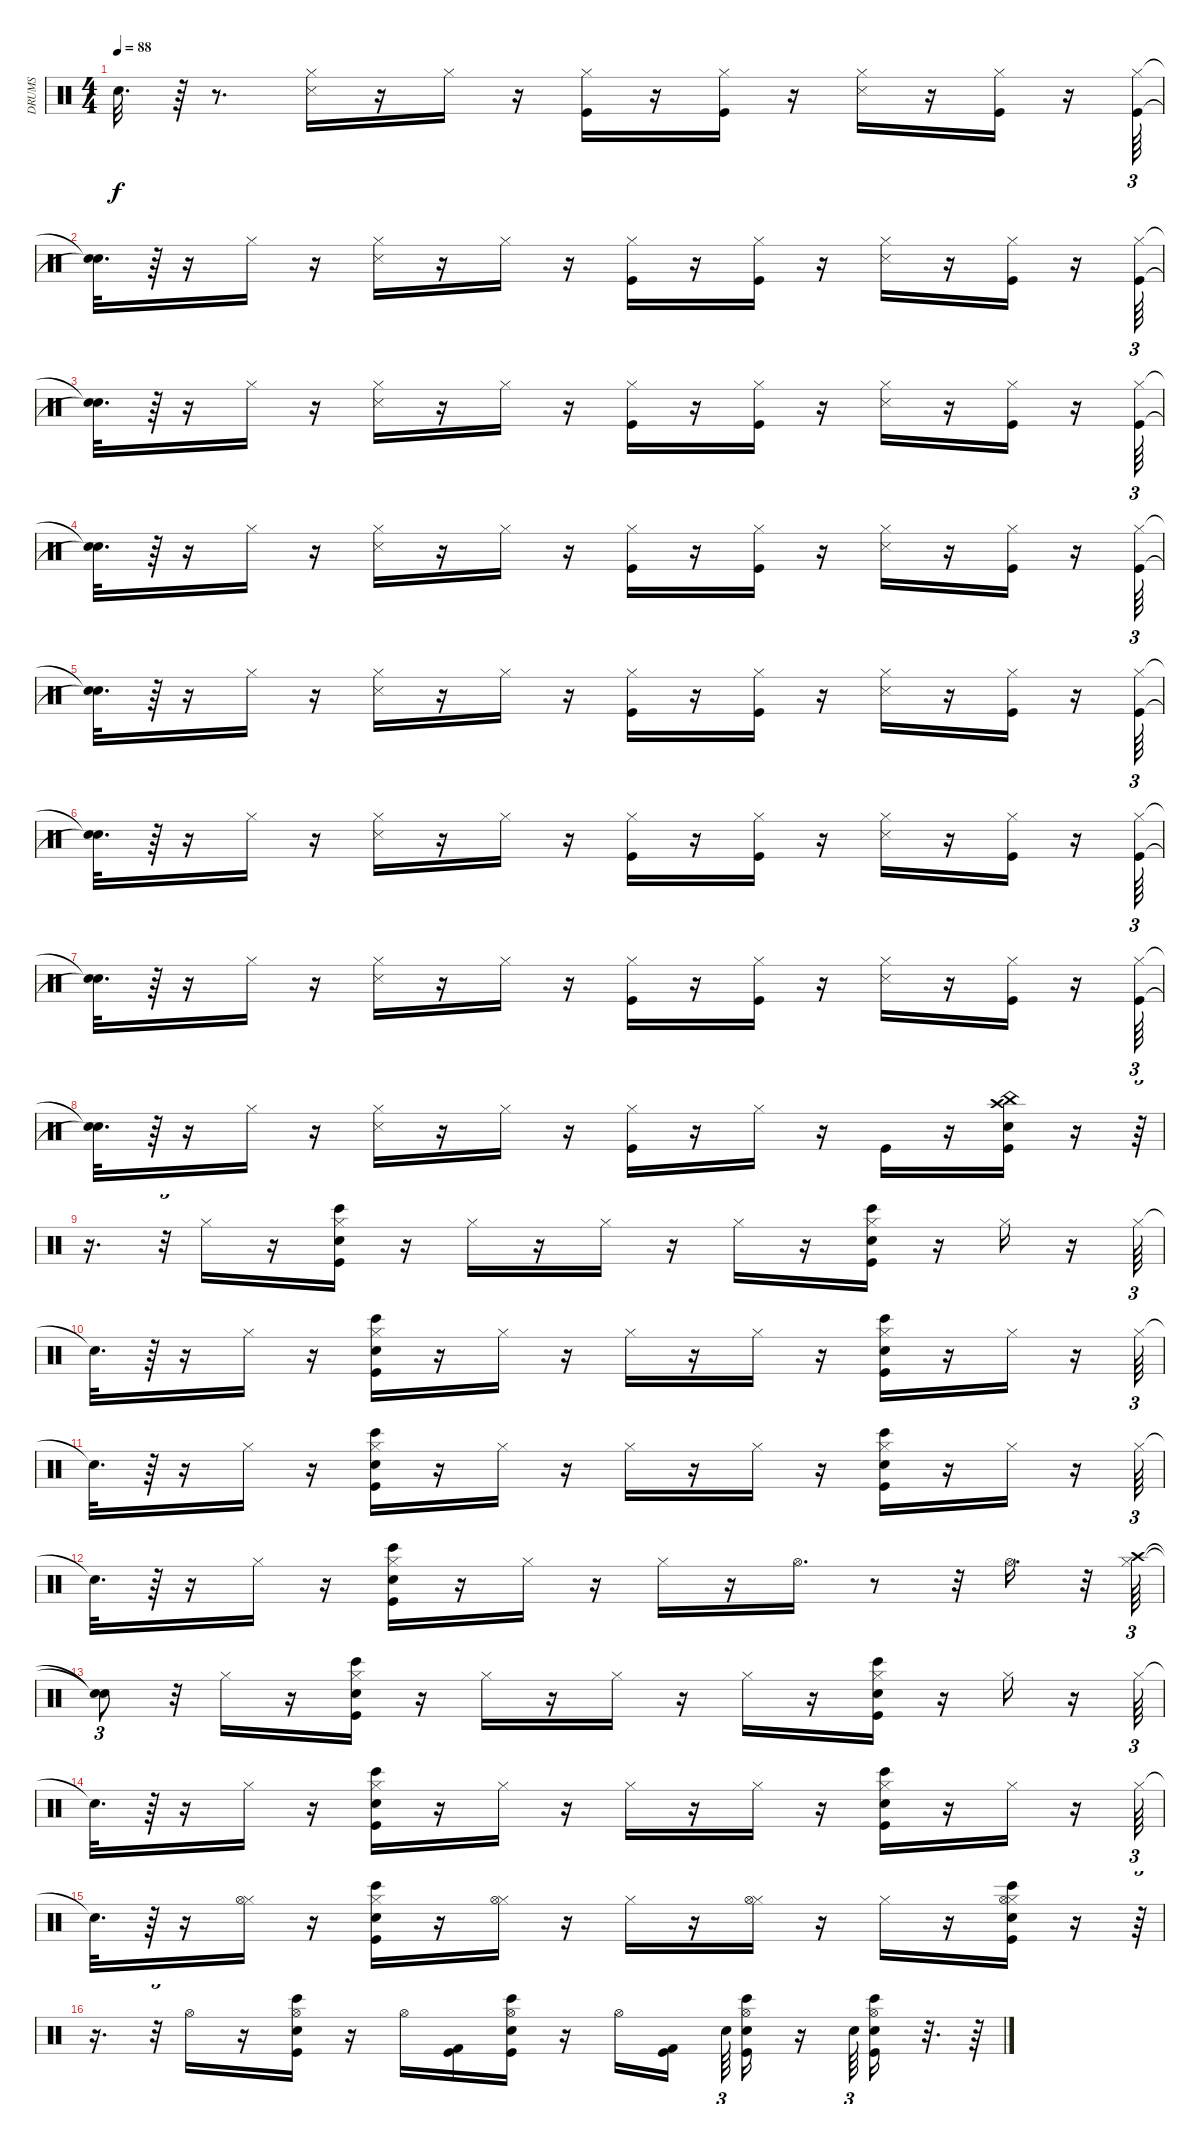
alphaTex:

\track ("DRUMS" "DRUMS") {instrument percussion}
\staff {score}
\articulation defaults
\ts (4 4)
\tempo 88
\clef neutral
\ks c "Snare (hit)"{t}.32{d dy f}
r.64 r.8{d} ("Snare (side stick) 3" "Hi-Hat (closed)").16 r.16 "Hi-Hat (closed)".16 r.16 ("Kick (hit)" "Hi-Hat (closed)").16 r.16 ("Kick (hit)" "Hi-Hat (closed)").16 r.16 ("Snare (side stick) 3" "Hi-Hat (closed)").16 r.16 ("Kick (hit)" "Hi-Hat (closed)").16 r.16 ("Kick (hit)" "Hi-Hat (closed)").64{tu (3 2)} |
("Snare (hit)"{t} "Snare (hit)"{t}).32{d} r.64 r.16 "Hi-Hat (closed)".16 r.16 ("Snare (side stick) 3" "Hi-Hat (closed)").16 r.16 "Hi-Hat (closed)".16 r.16 ("Kick (hit)" "Hi-Hat (closed)").16 r.16 ("Kick (hit)" "Hi-Hat (closed)").16 r.16 ("Snare (side stick) 3" "Hi-Hat (closed)").16 r.16 ("Kick (hit)" "Hi-Hat (closed)").16 r.16 ("Kick (hit)" "Hi-Hat (closed)").64{tu (3 2)} |
("Snare (hit)"{t} "Snare (hit)"{t}).32{d} r.64 r.16 "Hi-Hat (closed)".16 r.16 ("Snare (side stick) 3" "Hi-Hat (closed)").16 r.16 "Hi-Hat (closed)".16 r.16 ("Kick (hit)" "Hi-Hat (closed)").16 r.16 ("Kick (hit)" "Hi-Hat (closed)").16 r.16 ("Snare (side stick) 3" "Hi-Hat (closed)").16 r.16 ("Kick (hit)" "Hi-Hat (closed)").16 r.16 ("Kick (hit)" "Hi-Hat (closed)").64{tu (3 2)} |
("Snare (hit)"{t} "Snare (hit)"{t}).32{d} r.64 r.16 "Hi-Hat (closed)".16 r.16 ("Snare (side stick) 3" "Hi-Hat (closed)").16 r.16 "Hi-Hat (closed)".16 r.16 ("Kick (hit)" "Hi-Hat (closed)").16 r.16 ("Kick (hit)" "Hi-Hat (closed)").16 r.16 ("Snare (side stick) 3" "Hi-Hat (closed)").16 r.16 ("Kick (hit)" "Hi-Hat (closed)").16 r.16 ("Kick (hit)" "Hi-Hat (closed)").64{tu (3 2)} |
("Snare (hit)"{t} "Snare (hit)"{t}).32{d} r.64 r.16 "Hi-Hat (closed)".16 r.16 ("Snare (side stick) 3" "Hi-Hat (closed)").16 r.16 "Hi-Hat (closed)".16 r.16 ("Kick (hit)" "Hi-Hat (closed)").16 r.16 ("Kick (hit)" "Hi-Hat (closed)").16 r.16 ("Snare (side stick) 3" "Hi-Hat (closed)").16 r.16 ("Kick (hit)" "Hi-Hat (closed)").16 r.16 ("Kick (hit)" "Hi-Hat (closed)").64{tu (3 2)} |
("Snare (hit)"{t} "Snare (hit)"{t}).32{d} r.64 r.16 "Hi-Hat (closed)".16 r.16 ("Snare (side stick) 3" "Hi-Hat (closed)").16 r.16 "Hi-Hat (closed)".16 r.16 ("Kick (hit)" "Hi-Hat (closed)").16 r.16 ("Kick (hit)" "Hi-Hat (closed)").16 r.16 ("Snare (side stick) 3" "Hi-Hat (closed)").16 r.16 ("Kick (hit)" "Hi-Hat (closed)").16 r.16 ("Kick (hit)" "Hi-Hat (closed)").64{tu (3 2)} |
("Snare (hit)"{t} "Snare (hit)"{t}).32{d} r.64 r.16 "Hi-Hat (closed)".16 r.16 ("Snare (side stick) 3" "Hi-Hat (closed)").16 r.16 "Hi-Hat (closed)".16 r.16 ("Kick (hit)" "Hi-Hat (closed)").16 r.16 ("Kick (hit)" "Hi-Hat (closed)").16 r.16 ("Snare (side stick) 3" "Hi-Hat (closed)").16 r.16 ("Kick (hit)" "Hi-Hat (closed)").16 r.16 ("Kick (hit)" "Hi-Hat (closed)").64{tu (3 2)} |
("Snare (hit)"{t} "Snare (hit)"{t}).32{d} r.64 r.16 "Hi-Hat (closed)".16 r.16 ("Snare (side stick) 3" "Hi-Hat (closed)").16 r.16 "Hi-Hat (closed)".16 r.16 ("Kick (hit)" "Hi-Hat (closed)").16 r.16 "Hi-Hat (closed)".16 r.16 "Kick (hit)".16 r.16 ("Kick (hit)" "China (hit)" "Electric Snare (hit)" "Crash high (hit)").16 r.16 r.64{tu (3 2)} |
r.16{d} r.32{tu (3 2)} "Hi-Hat (closed)".16 r.16 ("Bongo High (hit)" "Kick (hit)" "Electric Snare (hit)" "Hi-Hat (closed)").16 r.16 "Hi-Hat (closed)".16 r.16 "Hi-Hat (closed)".16 r.16 "Hi-Hat (closed)".16 r.16 ("Bongo High (hit)" "Kick (hit)" "Electric Snare (hit)" "Hi-Hat (closed)").16 r.16 "Hi-Hat (closed)".16 r.16 "Hi-Hat (closed)".64{tu (3 2)} |
"Snare (hit)"{t}.32{d} r.64 r.16 "Hi-Hat (closed)".16 r.16 ("Bongo High (hit)" "Kick (hit)" "Electric Snare (hit)" "Hi-Hat (closed)").16 r.16 "Hi-Hat (closed)".16 r.16 "Hi-Hat (closed)".16 r.16 "Hi-Hat (closed)".16 r.16 ("Bongo High (hit)" "Kick (hit)" "Electric Snare (hit)" "Hi-Hat (closed)").16 r.16 "Hi-Hat (closed)".16 r.16 "Hi-Hat (closed)".64{tu (3 2)} |
"Snare (hit)"{t}.32{d} r.64 r.16 "Hi-Hat (closed)".16 r.16 ("Bongo High (hit)" "Kick (hit)" "Electric Snare (hit)" "Hi-Hat (closed)").16 r.16 "Hi-Hat (closed)".16 r.16 "Hi-Hat (closed)".16 r.16 "Hi-Hat (closed)".16 r.16 ("Bongo High (hit)" "Kick (hit)" "Electric Snare (hit)" "Hi-Hat (closed)").16 r.16 "Hi-Hat (closed)".16 r.16 "Hi-Hat (closed)".64{tu (3 2)} |
"Snare (hit)"{t}.32{d} r.64 r.16 "Hi-Hat (closed)".16 r.16 ("Bongo High (hit)" "Kick (hit)" "Electric Snare (hit)" "Hi-Hat (closed)").16 r.16 "Hi-Hat (closed)".16 r.16 "Hi-Hat (closed)".16 r.16 "Hi-Hat (open)".16{d} r.8 r.32 "Hi-Hat (open)".16{d} r.32 ("Crash high (hit)" "Hi-Hat (closed)").64{tu (3 2)} |
("Snare (hit)"{t} "Snare (hit)"{t}).8{tu (3 2)} r.32 "Hi-Hat (closed)".16 r.16 ("Bongo High (hit)" "Kick (hit)" "Electric Snare (hit)" "Hi-Hat (closed)").16 r.16 "Hi-Hat (closed)".16 r.16 "Hi-Hat (closed)".16 r.16 "Hi-Hat (closed)".16 r.16 ("Bongo High (hit)" "Kick (hit)" "Electric Snare (hit)" "Hi-Hat (closed)").16 r.16 "Hi-Hat (closed)".16 r.16 "Hi-Hat (closed)".64{tu (3 2)} |
"Snare (hit)"{t}.32{d} r.64 r.16 "Hi-Hat (closed)".16 r.16 ("Bongo High (hit)" "Kick (hit)" "Electric Snare (hit)" "Hi-Hat (closed)").16 r.16 "Hi-Hat (closed)".16 r.16 "Hi-Hat (closed)".16 r.16 "Hi-Hat (closed)".16 r.16 ("Bongo High (hit)" "Kick (hit)" "Electric Snare (hit)" "Hi-Hat (closed)").16 r.16 "Hi-Hat (closed)".16 r.16 "Hi-Hat (closed)".64{tu (3 2)} |
"Snare (hit)"{t}.32{d} r.64 r.16 ("Hi-Hat (closed)" "Hi-Hat (open)").16 r.16 ("Bongo High (hit)" "Kick (hit)" "Electric Snare (hit)" "Hi-Hat (closed)").16 r.16 ("Hi-Hat (closed)" "Hi-Hat (open)").16 r.16 "Hi-Hat (closed)".16 r.16 ("Hi-Hat (closed)" "Hi-Hat (open)").16 r.16 "Hi-Hat (closed)".16 r.16 ("Bongo High (hit)" "Kick (hit)" "Electric Snare (hit)" "Hi-Hat (closed)" "Hi-Hat (open)").16 r.16 r.64{tu (3 2)} |
r.16{d} r.32{tu (3 2)} "Hi-Hat (open)".16 r.16 ("Bongo High (hit)" "Kick (hit)" "Electric Snare (hit)" "Hi-Hat (open)").16 r.16 "Hi-Hat (open)".16 ("Kick (hit) 2" "Kick (hit)").16 ("Bongo High (hit)" "Kick (hit)" "Electric Snare (hit)" "Hi-Hat (open)").16 r.16 "Hi-Hat (open)".16 ("Kick (hit) 2" "Kick (hit)").16 "Electric Snare (hit)".64{tu (3 2)} ("Electric Snare (hit)" "Bongo High (hit)" "Kick (hit)" "Hi-Hat (open)").16 r.16 "Electric Snare (hit)".64{tu (3 2)} ("Bongo High (hit)" "Kick (hit)" "Electric Snare (hit)" "Hi-Hat (open)").16 r.32{d} r.64
